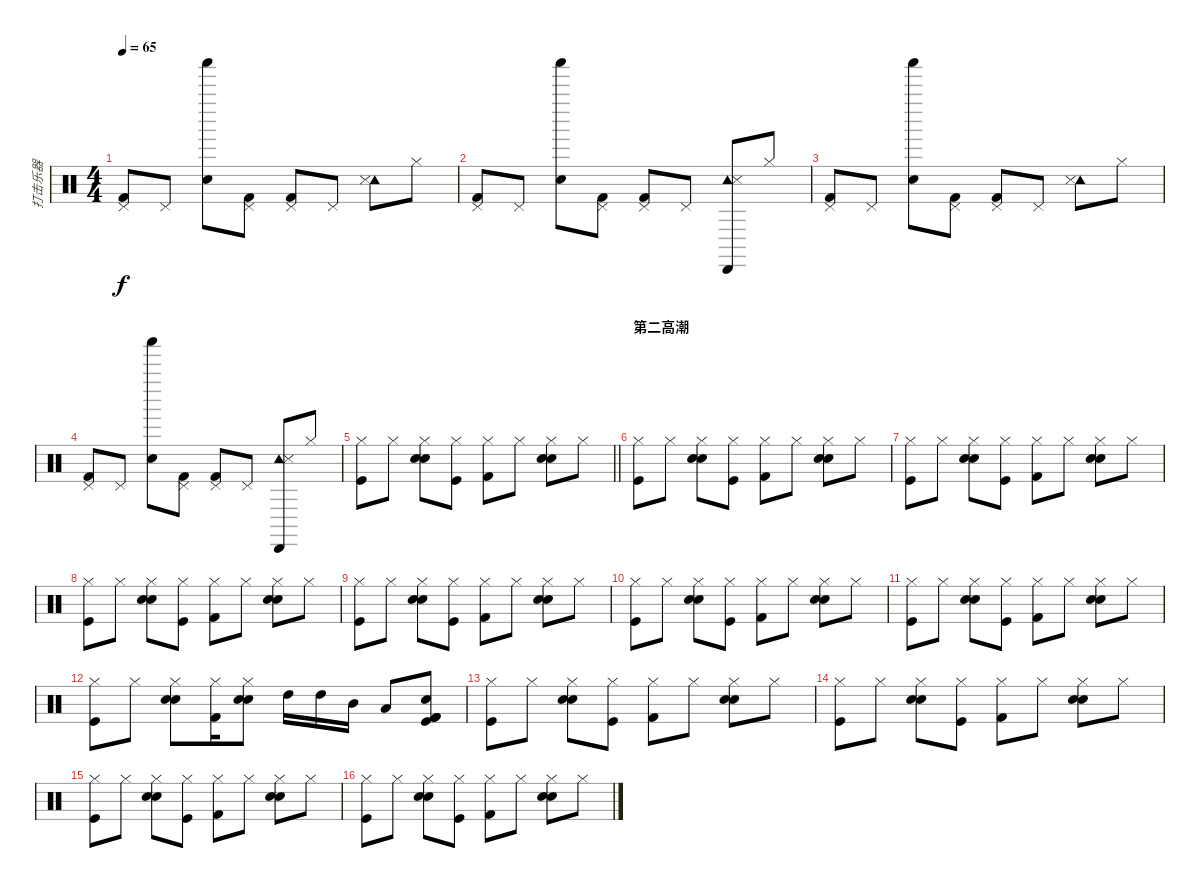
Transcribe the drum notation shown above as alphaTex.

\track ("打击乐器" "打击乐器") {instrument percussion}
\staff {score}
\articulation defaults
\ts (4 4)
\tempo 65
\clef neutral
\ks c
("Pedal Hi-Hat (hit)" "Kick (hit) 2").8{dy f} "Pedal Hi-Hat (hit)".8 ("Shaker (hit)" "Hand Clap (hit)").8 ("Pedal Hi-Hat (hit)" "Kick (hit) 2").8 ("Pedal Hi-Hat (hit)" "Kick (hit) 2").8 "Pedal Hi-Hat (hit)".8 ("Tambourine (hit)" "Metronome (hit)").8 "Hi-Hat (closed)".8 |
("Pedal Hi-Hat (hit)" "Kick (hit) 2").8 "Pedal Hi-Hat (hit)".8 ("Shaker (hit)" "Hand Clap (hit)").8 ("Pedal Hi-Hat (hit)" "Kick (hit) 2").8 ("Pedal Hi-Hat (hit)" "Kick (hit) 2").8 "Pedal Hi-Hat (hit)".8 ("Tambourine (hit)" "Metronome (hit)" "Cabasa (hit)").8 "Hi-Hat (closed)".8 |
("Pedal Hi-Hat (hit)" "Kick (hit) 2").8 "Pedal Hi-Hat (hit)".8 ("Shaker (hit)" "Hand Clap (hit)").8 ("Pedal Hi-Hat (hit)" "Kick (hit) 2").8 ("Pedal Hi-Hat (hit)" "Kick (hit) 2").8 "Pedal Hi-Hat (hit)".8 ("Tambourine (hit)" "Metronome (hit)").8 "Hi-Hat (closed)".8 |
("Pedal Hi-Hat (hit)" "Kick (hit) 2").8 "Pedal Hi-Hat (hit)".8 ("Shaker (hit)" "Hand Clap (hit)").8 ("Pedal Hi-Hat (hit)" "Kick (hit) 2").8 ("Pedal Hi-Hat (hit)" "Kick (hit) 2").8 "Pedal Hi-Hat (hit)".8 ("Tambourine (hit)" "Metronome (hit)" "Cabasa (hit)").8 "Hi-Hat (closed)".8 |
\barLineRight lightlight
("Hi-Hat (closed)" "Kick (hit)").8 "Hi-Hat (closed)".8 ("Hi-Hat (closed)" "Electric Snare (hit)" "Hand Clap (hit)").8 ("Hi-Hat (closed)" "Kick (hit)").8 ("Hi-Hat (closed)" "Kick (hit) 2").8 "Hi-Hat (closed)".8 ("Hi-Hat (closed)" "Electric Snare (hit)" "Hand Clap (hit)").8 "Hi-Hat (closed)".8 |
\section ("" "第二高潮")
("Hi-Hat (closed)" "Kick (hit)").8 "Hi-Hat (closed)".8 ("Hi-Hat (closed)" "Electric Snare (hit)" "Hand Clap (hit)").8 ("Hi-Hat (closed)" "Kick (hit)").8 ("Hi-Hat (closed)" "Kick (hit) 2").8 "Hi-Hat (closed)".8 ("Hi-Hat (closed)" "Electric Snare (hit)" "Hand Clap (hit)").8 "Hi-Hat (closed)".8 |
("Hi-Hat (closed)" "Kick (hit)").8 "Hi-Hat (closed)".8 ("Hi-Hat (closed)" "Electric Snare (hit)" "Hand Clap (hit)").8 ("Hi-Hat (closed)" "Kick (hit)").8 ("Hi-Hat (closed)" "Kick (hit) 2").8 "Hi-Hat (closed)".8 ("Hi-Hat (closed)" "Electric Snare (hit)" "Hand Clap (hit)").8 "Hi-Hat (closed)".8 |
("Hi-Hat (closed)" "Kick (hit)").8 "Hi-Hat (closed)".8 ("Hi-Hat (closed)" "Electric Snare (hit)" "Hand Clap (hit)").8 ("Hi-Hat (closed)" "Kick (hit)").8 ("Hi-Hat (closed)" "Kick (hit) 2").8 "Hi-Hat (closed)".8 ("Hi-Hat (closed)" "Electric Snare (hit)" "Hand Clap (hit)").8 "Hi-Hat (closed)".8 |
("Hi-Hat (closed)" "Kick (hit)").8 "Hi-Hat (closed)".8 ("Hi-Hat (closed)" "Electric Snare (hit)" "Hand Clap (hit)").8 ("Hi-Hat (closed)" "Kick (hit)").8 ("Hi-Hat (closed)" "Kick (hit) 2").8 "Hi-Hat (closed)".8 ("Hi-Hat (closed)" "Electric Snare (hit)" "Hand Clap (hit)").8 "Hi-Hat (closed)".8 |
("Hi-Hat (closed)" "Kick (hit)").8 "Hi-Hat (closed)".8 ("Hi-Hat (closed)" "Electric Snare (hit)" "Hand Clap (hit)").8 ("Hi-Hat (closed)" "Kick (hit)").8 ("Hi-Hat (closed)" "Kick (hit) 2").8 "Hi-Hat (closed)".8 ("Hi-Hat (closed)" "Electric Snare (hit)" "Hand Clap (hit)").8 "Hi-Hat (closed)".8 |
("Hi-Hat (closed)" "Kick (hit)").8 "Hi-Hat (closed)".8 ("Hi-Hat (closed)" "Electric Snare (hit)" "Hand Clap (hit)").8 ("Hi-Hat (closed)" "Kick (hit)").8 ("Hi-Hat (closed)" "Kick (hit) 2").8 "Hi-Hat (closed)".8 ("Hi-Hat (closed)" "Electric Snare (hit)" "Hand Clap (hit)").8 "Hi-Hat (closed)".8 |
("Hi-Hat (closed)" "Kick (hit)").8 "Hi-Hat (closed)".8 ("Hi-Hat (closed)" "Electric Snare (hit)" "Hand Clap (hit)").8 ("Hi-Hat (closed)" "Kick (hit) 2").16 ("Hi-Hat (closed)" "Electric Snare (hit)" "Hand Clap (hit)").8 "High Tom (hit)".16 "High Tom (hit)".16 "Mid Tom (hit)".16 "Low Tom (hit)".8 ("Electric Snare (hit)" "Kick (hit) 2" "Kick (hit) 2" "Kick (hit)").8 |
("Hi-Hat (closed)" "Kick (hit)").8 "Hi-Hat (closed)".8 ("Hi-Hat (closed)" "Electric Snare (hit)" "Hand Clap (hit)").8 ("Hi-Hat (closed)" "Kick (hit)").8 ("Hi-Hat (closed)" "Kick (hit) 2").8 "Hi-Hat (closed)".8 ("Hi-Hat (closed)" "Electric Snare (hit)" "Hand Clap (hit)").8 "Hi-Hat (closed)".8 |
("Hi-Hat (closed)" "Kick (hit)").8 "Hi-Hat (closed)".8 ("Hi-Hat (closed)" "Electric Snare (hit)" "Hand Clap (hit)").8 ("Hi-Hat (closed)" "Kick (hit)").8 ("Hi-Hat (closed)" "Kick (hit) 2").8 "Hi-Hat (closed)".8 ("Hi-Hat (closed)" "Electric Snare (hit)" "Hand Clap (hit)").8 "Hi-Hat (closed)".8 |
("Hi-Hat (closed)" "Kick (hit)").8 "Hi-Hat (closed)".8 ("Hi-Hat (closed)" "Electric Snare (hit)" "Hand Clap (hit)").8 ("Hi-Hat (closed)" "Kick (hit)").8 ("Hi-Hat (closed)" "Kick (hit) 2").8 "Hi-Hat (closed)".8 ("Hi-Hat (closed)" "Electric Snare (hit)" "Hand Clap (hit)").8 "Hi-Hat (closed)".8 |
("Hi-Hat (closed)" "Kick (hit)").8 "Hi-Hat (closed)".8 ("Hi-Hat (closed)" "Electric Snare (hit)" "Hand Clap (hit)").8 ("Hi-Hat (closed)" "Kick (hit)").8 ("Hi-Hat (closed)" "Kick (hit) 2").8 "Hi-Hat (closed)".8 ("Hi-Hat (closed)" "Electric Snare (hit)" "Hand Clap (hit)").8 "Hi-Hat (closed)".8
